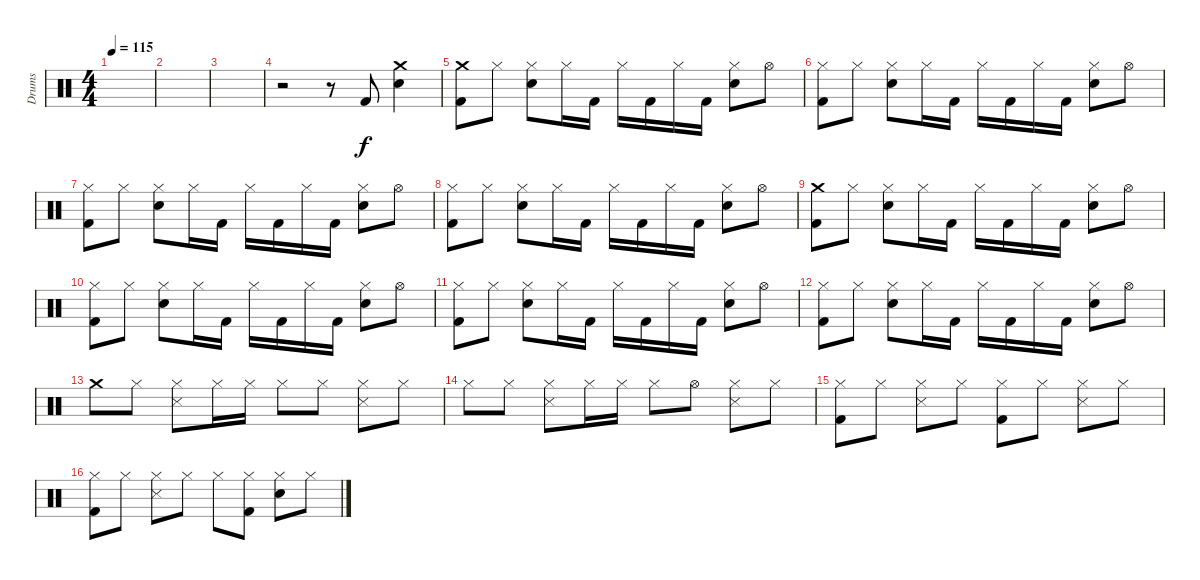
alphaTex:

\track ("Drums" "Drums") {instrument percussion}
\staff {score}
\articulation defaults
\ts (4 4)
\tempo 115
\clef neutral
\ks c
|
|
|
r.2 r.8 "Kick (hit) 2".8 ("Crash medium (hit)" "Snare (hit) 2").4 |
("Crash medium (hit)" "Kick (hit) 2").8 "Hi-Hat (closed)".8 ("Hi-Hat (closed)" "Snare (hit) 2").8 "Hi-Hat (closed)".16 "Kick (hit) 2".16 "Hi-Hat (closed)".16 "Kick (hit) 2".16 "Hi-Hat (closed)".16 "Kick (hit) 2".16 ("Hi-Hat (closed)" "Snare (hit) 2").8 "Hi-Hat (open)".8 |
("Hi-Hat (closed)" "Kick (hit) 2").8 "Hi-Hat (closed)".8 ("Hi-Hat (closed)" "Snare (hit) 2").8 "Hi-Hat (closed)".16 "Kick (hit) 2".16 "Hi-Hat (closed)".16 "Kick (hit) 2".16 "Hi-Hat (closed)".16 "Kick (hit) 2".16 ("Hi-Hat (closed)" "Snare (hit) 2").8 "Hi-Hat (open)".8 |
("Hi-Hat (closed)" "Kick (hit) 2").8 "Hi-Hat (closed)".8 ("Hi-Hat (closed)" "Snare (hit) 2").8 "Hi-Hat (closed)".16 "Kick (hit) 2".16 "Hi-Hat (closed)".16 "Kick (hit) 2".16 "Hi-Hat (closed)".16 "Kick (hit) 2".16 ("Hi-Hat (closed)" "Snare (hit) 2").8 "Hi-Hat (open)".8 |
("Hi-Hat (closed)" "Kick (hit) 2").8 "Hi-Hat (closed)".8 ("Hi-Hat (closed)" "Snare (hit) 2").8 "Hi-Hat (closed)".16 "Kick (hit) 2".16 "Hi-Hat (closed)".16 "Kick (hit) 2".16 "Hi-Hat (closed)".16 "Kick (hit) 2".16 ("Hi-Hat (closed)" "Snare (hit) 2").8 "Hi-Hat (open)".8 |
("Crash medium (hit)" "Kick (hit) 2").8 "Hi-Hat (closed)".8 ("Hi-Hat (closed)" "Snare (hit) 2").8 "Hi-Hat (closed)".16 "Kick (hit) 2".16 "Hi-Hat (closed)".16 "Kick (hit) 2".16 "Hi-Hat (closed)".16 "Kick (hit) 2".16 ("Hi-Hat (closed)" "Snare (hit) 2").8 "Hi-Hat (open)".8 |
("Hi-Hat (closed)" "Kick (hit) 2").8 "Hi-Hat (closed)".8 ("Hi-Hat (closed)" "Snare (hit) 2").8 "Hi-Hat (closed)".16 "Kick (hit) 2".16 "Hi-Hat (closed)".16 "Kick (hit) 2".16 "Hi-Hat (closed)".16 "Kick (hit) 2".16 ("Hi-Hat (closed)" "Snare (hit) 2").8 "Hi-Hat (open)".8 |
("Hi-Hat (closed)" "Kick (hit) 2").8 "Hi-Hat (closed)".8 ("Hi-Hat (closed)" "Snare (hit) 2").8 "Hi-Hat (closed)".16 "Kick (hit) 2".16 "Hi-Hat (closed)".16 "Kick (hit) 2".16 "Hi-Hat (closed)".16 "Kick (hit) 2".16 ("Hi-Hat (closed)" "Snare (hit) 2").8 "Hi-Hat (open)".8 |
("Hi-Hat (closed)" "Kick (hit) 2").8 "Hi-Hat (closed)".8 ("Hi-Hat (closed)" "Snare (hit) 2").8 "Hi-Hat (closed)".16 "Kick (hit) 2".16 "Hi-Hat (closed)".16 "Kick (hit) 2".16 "Hi-Hat (closed)".16 "Kick (hit) 2".16 ("Hi-Hat (closed)" "Snare (hit) 2").8 "Hi-Hat (open)".8 |
"Crash medium (hit)".8 "Hi-Hat (closed)".8 ("Hi-Hat (closed)" "Snare (side stick) 3").8 "Hi-Hat (closed)".16 "Hi-Hat (closed)".16 "Hi-Hat (closed)".8 "Hi-Hat (closed)".8 ("Hi-Hat (closed)" "Snare (side stick) 3").8 "Hi-Hat (closed)".8 |
"Hi-Hat (closed)".8 "Hi-Hat (closed)".8 ("Hi-Hat (closed)" "Snare (side stick) 3").8 "Hi-Hat (closed)".16 "Hi-Hat (closed)".16 "Hi-Hat (closed)".8 "Hi-Hat (open)".8 ("Hi-Hat (closed)" "Snare (side stick) 3").8 "Hi-Hat (closed)".8 |
("Hi-Hat (closed)" "Kick (hit) 2").8 "Hi-Hat (closed)".8 ("Hi-Hat (closed)" "Snare (side stick) 3").8 "Hi-Hat (closed)".8 ("Hi-Hat (closed)" "Kick (hit) 2").8 "Hi-Hat (closed)".8 ("Hi-Hat (closed)" "Snare (side stick) 3").8 "Hi-Hat (closed)".8 |
("Hi-Hat (closed)" "Kick (hit) 2").8 "Hi-Hat (closed)".8 ("Hi-Hat (closed)" "Snare (side stick) 3").8 "Hi-Hat (closed)".8 "Hi-Hat (closed)".8 ("Hi-Hat (closed)" "Kick (hit) 2").8 ("Hi-Hat (closed)" "Snare (hit) 2").8 "Hi-Hat (closed)".8
